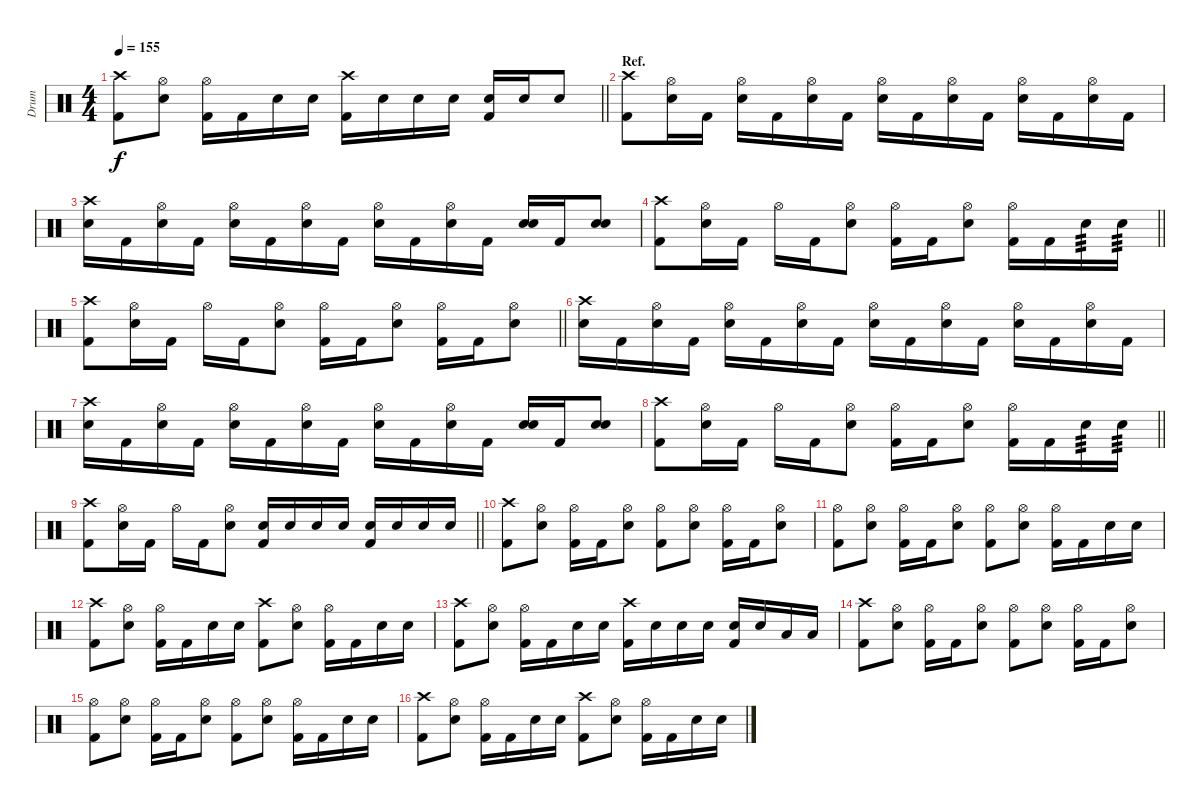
\track ("Drum" "Drum") {solo instrument percussion}
\staff {score}
\articulation defaults
\ts (4 4)
\tempo 155
\clef neutral
\barLineRight lightlight
\ks c
("Crash high (hit)" "Kick (hit) 2").8{dy f} ("Hi-Hat (open)" "Electric Snare (hit)").8 ("Kick (hit) 2" "Hi-Hat (open)").16 "Kick (hit) 2".16 "Electric Snare (hit)".16 "Electric Snare (hit)".16 ("Crash high (hit)" "Kick (hit) 2").16 "Electric Snare (hit)".16 "Electric Snare (hit)".16 "Electric Snare (hit)".16 ("Electric Snare (hit)" "Kick (hit) 2").16 "Electric Snare (hit)".16 "Electric Snare (hit)".8 |
\section ("" "Ref.")
("Kick (hit) 2" "Crash high (hit)").8 ("Hi-Hat (open)" "Electric Snare (hit)").16 "Kick (hit) 2".16 ("Electric Snare (hit)" "Hi-Hat (open)").16 "Kick (hit) 2".16 ("Hi-Hat (open)" "Electric Snare (hit)").16 "Kick (hit) 2".16 ("Electric Snare (hit)" "Hi-Hat (open)").16 "Kick (hit) 2".16 ("Hi-Hat (open)" "Electric Snare (hit)").16 "Kick (hit) 2".16 ("Electric Snare (hit)" "Hi-Hat (open)").16 "Kick (hit) 2".16 ("Hi-Hat (open)" "Electric Snare (hit)").16 "Kick (hit) 2".16 |
("Electric Snare (hit)" "Crash high (hit)").16 "Kick (hit) 2".16 ("Hi-Hat (open)" "Electric Snare (hit)").16 "Kick (hit) 2".16 ("Electric Snare (hit)" "Hi-Hat (open)").16 "Kick (hit) 2".16 ("Hi-Hat (open)" "Electric Snare (hit)").16 "Kick (hit) 2".16 ("Electric Snare (hit)" "Hi-Hat (open)").16 "Kick (hit) 2".16 ("Hi-Hat (open)" "Electric Snare (hit)").16 "Kick (hit) 2".16 ("Electric Snare (hit)" "Electric Snare (hit)").16 "Kick (hit) 2".16 ("Electric Snare (hit)" "Electric Snare (hit)").8 |
\barLineRight lightlight
("Crash high (hit)" "Kick (hit) 2").8 ("Hi-Hat (open)" "Electric Snare (hit)").16 "Kick (hit) 2".16 "Hi-Hat (open)".16 "Kick (hit) 2".16 ("Hi-Hat (open)" "Electric Snare (hit)").8 ("Kick (hit) 2" "Hi-Hat (open)").16 "Kick (hit) 2".16 ("Hi-Hat (open)" "Electric Snare (hit)").8 ("Kick (hit) 2" "Hi-Hat (open)").16 "Kick (hit) 2".16 "Electric Snare (hit)".16{tp 3} "Electric Snare (hit)".16{tp 3} |
\barLineRight lightlight
("Crash high (hit)" "Kick (hit) 2").8 ("Hi-Hat (open)" "Electric Snare (hit)").16 "Kick (hit) 2".16 "Hi-Hat (open)".16 "Kick (hit) 2".16 ("Hi-Hat (open)" "Electric Snare (hit)").8 ("Kick (hit) 2" "Hi-Hat (open)").16 "Kick (hit) 2".16 ("Hi-Hat (open)" "Electric Snare (hit)").8 ("Kick (hit) 2" "Hi-Hat (open)").16 "Kick (hit) 2".16 ("Hi-Hat (open)" "Electric Snare (hit)").8 |
("Crash high (hit)" "Electric Snare (hit)").16 "Kick (hit) 2".16 ("Hi-Hat (open)" "Electric Snare (hit)").16 "Kick (hit) 2".16 ("Electric Snare (hit)" "Hi-Hat (open)").16 "Kick (hit) 2".16 ("Hi-Hat (open)" "Electric Snare (hit)").16 "Kick (hit) 2".16 ("Electric Snare (hit)" "Hi-Hat (open)").16 "Kick (hit) 2".16 ("Hi-Hat (open)" "Electric Snare (hit)").16 "Kick (hit) 2".16 ("Electric Snare (hit)" "Hi-Hat (open)").16 "Kick (hit) 2".16 ("Hi-Hat (open)" "Electric Snare (hit)").16 "Kick (hit) 2".16 |
("Electric Snare (hit)" "Crash high (hit)").16 "Kick (hit) 2".16 ("Hi-Hat (open)" "Electric Snare (hit)").16 "Kick (hit) 2".16 ("Electric Snare (hit)" "Hi-Hat (open)").16 "Kick (hit) 2".16 ("Hi-Hat (open)" "Electric Snare (hit)").16 "Kick (hit) 2".16 ("Electric Snare (hit)" "Hi-Hat (open)").16 "Kick (hit) 2".16 ("Hi-Hat (open)" "Electric Snare (hit)").16 "Kick (hit) 2".16 ("Electric Snare (hit)" "Electric Snare (hit)").16 "Kick (hit) 2".16 ("Electric Snare (hit)" "Electric Snare (hit)").8 |
\barLineRight lightlight
("Crash high (hit)" "Kick (hit) 2").8 ("Hi-Hat (open)" "Electric Snare (hit)").16 "Kick (hit) 2".16 "Hi-Hat (open)".16 "Kick (hit) 2".16 ("Hi-Hat (open)" "Electric Snare (hit)").8 ("Kick (hit) 2" "Hi-Hat (open)").16 "Kick (hit) 2".16 ("Hi-Hat (open)" "Electric Snare (hit)").8 ("Kick (hit) 2" "Hi-Hat (open)").16 "Kick (hit) 2".16 "Electric Snare (hit)".16{tp 3} "Electric Snare (hit)".16{tp 3} |
\barLineRight lightlight
("Crash high (hit)" "Kick (hit) 2").8 ("Hi-Hat (open)" "Electric Snare (hit)").16 "Kick (hit) 2".16 "Hi-Hat (open)".16 "Kick (hit) 2".16 ("Hi-Hat (open)" "Electric Snare (hit)").8 ("Electric Snare (hit)" "Kick (hit) 2").16 "Electric Snare (hit)".16 "Electric Snare (hit)".16 "Electric Snare (hit)".16 ("Electric Snare (hit)" "Kick (hit) 2").16 "Electric Snare (hit)".16 "Electric Snare (hit)".16 "Electric Snare (hit)".16 |
("Crash high (hit)" "Kick (hit) 2").8 ("Hi-Hat (open)" "Electric Snare (hit)").8 ("Hi-Hat (open)" "Kick (hit) 2").16 "Kick (hit) 2".16 ("Hi-Hat (open)" "Electric Snare (hit)").8 ("Hi-Hat (open)" "Kick (hit) 2").8 ("Hi-Hat (open)" "Electric Snare (hit)").8 ("Kick (hit) 2" "Hi-Hat (open)").16 "Kick (hit) 2".16 ("Hi-Hat (open)" "Electric Snare (hit)").8 |
("Hi-Hat (open)" "Kick (hit) 2").8 ("Hi-Hat (open)" "Electric Snare (hit)").8 ("Hi-Hat (open)" "Kick (hit) 2").16 "Kick (hit) 2".16 ("Hi-Hat (open)" "Electric Snare (hit)").8 ("Hi-Hat (open)" "Kick (hit) 2").8 ("Hi-Hat (open)" "Electric Snare (hit)").8 ("Kick (hit) 2" "Hi-Hat (open)").16 "Kick (hit) 2".16 "Electric Snare (hit)".16 "Electric Snare (hit)".16 |
("Crash high (hit)" "Kick (hit) 2").8 ("Hi-Hat (open)" "Electric Snare (hit)").8 ("Kick (hit) 2" "Hi-Hat (open)").16 "Kick (hit) 2".16 "Electric Snare (hit)".16 "Electric Snare (hit)".16 ("Crash high (hit)" "Kick (hit) 2").8 ("Hi-Hat (open)" "Electric Snare (hit)").8 ("Kick (hit) 2" "Hi-Hat (open)").16 "Kick (hit) 2".16 "Electric Snare (hit)".16 "Electric Snare (hit)".16 |
("Crash high (hit)" "Kick (hit) 2").8 ("Hi-Hat (open)" "Electric Snare (hit)").8 ("Kick (hit) 2" "Hi-Hat (open)").16 "Kick (hit) 2".16 "Electric Snare (hit)".16 "Electric Snare (hit)".16 ("Crash high (hit)" "Kick (hit) 2").16 "Electric Snare (hit)".16 "Electric Snare (hit)".16 "Electric Snare (hit)".16 ("Electric Snare (hit)" "Kick (hit) 2").16 "Electric Snare (hit)".16 "Low Tom (hit)".16 "Low Tom (hit)".16 |
("Crash high (hit)" "Kick (hit) 2").8 ("Hi-Hat (open)" "Electric Snare (hit)").8 ("Hi-Hat (open)" "Kick (hit) 2").16 "Kick (hit) 2".16 ("Hi-Hat (open)" "Electric Snare (hit)").8 ("Hi-Hat (open)" "Kick (hit) 2").8 ("Hi-Hat (open)" "Electric Snare (hit)").8 ("Kick (hit) 2" "Hi-Hat (open)").16 "Kick (hit) 2".16 ("Hi-Hat (open)" "Electric Snare (hit)").8 |
("Hi-Hat (open)" "Kick (hit) 2").8 ("Hi-Hat (open)" "Electric Snare (hit)").8 ("Hi-Hat (open)" "Kick (hit) 2").16 "Kick (hit) 2".16 ("Hi-Hat (open)" "Electric Snare (hit)").8 ("Hi-Hat (open)" "Kick (hit) 2").8 ("Hi-Hat (open)" "Electric Snare (hit)").8 ("Kick (hit) 2" "Hi-Hat (open)").16 "Kick (hit) 2".16 "Electric Snare (hit)".16 "Electric Snare (hit)".16 |
("Crash high (hit)" "Kick (hit) 2").8 ("Hi-Hat (open)" "Electric Snare (hit)").8 ("Kick (hit) 2" "Hi-Hat (open)").16 "Kick (hit) 2".16 "Electric Snare (hit)".16 "Electric Snare (hit)".16 ("Crash high (hit)" "Kick (hit) 2").8 ("Hi-Hat (open)" "Electric Snare (hit)").8 ("Kick (hit) 2" "Hi-Hat (open)").16 "Kick (hit) 2".16 "Electric Snare (hit)".16 "Electric Snare (hit)".16
